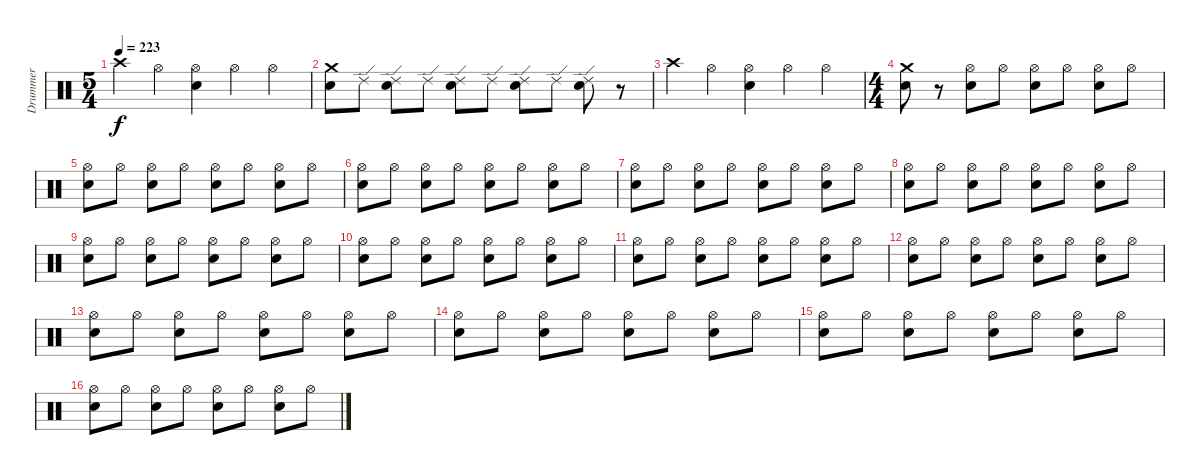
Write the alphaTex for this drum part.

\track ("Drummer" "Drummer") {instrument percussion}
\staff {score}
\articulation defaults
\ts (5 4)
\tempo 223
\clef neutral
\ks c "Crash high (hit)".4{dy f} "Hi-Hat (open)".4
("Hi-Hat (open)" "Electric Snare (hit)").4 "Hi-Hat (open)".4 "Hi-Hat (open)".4 |
("Crash medium (hit)" "Electric Snare (hit)").8 "Ride (edge) 2".8 ("Ride (edge) 2" "Electric Snare (hit)").8 "Ride (edge) 2".8 ("Ride (edge) 2" "Electric Snare (hit)").8 "Ride (edge) 2".8 ("Ride (edge) 2" "Electric Snare (hit)").8 "Ride (edge) 2".8 ("Ride (edge) 2" "Electric Snare (hit)").8 r.8 |
"Crash high (hit)".4 "Hi-Hat (open)".4 ("Hi-Hat (open)" "Electric Snare (hit)").4 "Hi-Hat (open)".4 "Hi-Hat (open)".4 |
\ts (4 4)
("Crash medium (hit)" "Electric Snare (hit)").8 r.8 ("Hi-Hat (open)" "Electric Snare (hit)").8 "Hi-Hat (open)".8 ("Hi-Hat (open)" "Electric Snare (hit)").8 "Hi-Hat (open)".8 ("Hi-Hat (open)" "Electric Snare (hit)").8 "Hi-Hat (open)".8 |
("Hi-Hat (open)" "Electric Snare (hit)").8 "Hi-Hat (open)".8 ("Hi-Hat (open)" "Electric Snare (hit)").8 "Hi-Hat (open)".8 ("Hi-Hat (open)" "Electric Snare (hit)").8 "Hi-Hat (open)".8 ("Hi-Hat (open)" "Electric Snare (hit)").8 "Hi-Hat (open)".8 |
("Hi-Hat (open)" "Electric Snare (hit)").8 "Hi-Hat (open)".8 ("Hi-Hat (open)" "Electric Snare (hit)").8 "Hi-Hat (open)".8 ("Hi-Hat (open)" "Electric Snare (hit)").8 "Hi-Hat (open)".8 ("Hi-Hat (open)" "Electric Snare (hit)").8 "Hi-Hat (open)".8 |
("Hi-Hat (open)" "Electric Snare (hit)").8 "Hi-Hat (open)".8 ("Hi-Hat (open)" "Electric Snare (hit)").8 "Hi-Hat (open)".8 ("Hi-Hat (open)" "Electric Snare (hit)").8 "Hi-Hat (open)".8 ("Hi-Hat (open)" "Electric Snare (hit)").8 "Hi-Hat (open)".8 |
("Hi-Hat (open)" "Electric Snare (hit)").8 "Hi-Hat (open)".8 ("Hi-Hat (open)" "Electric Snare (hit)").8 "Hi-Hat (open)".8 ("Hi-Hat (open)" "Electric Snare (hit)").8 "Hi-Hat (open)".8 ("Hi-Hat (open)" "Electric Snare (hit)").8 "Hi-Hat (open)".8 |
("Hi-Hat (open)" "Electric Snare (hit)").8 "Hi-Hat (open)".8 ("Hi-Hat (open)" "Electric Snare (hit)").8 "Hi-Hat (open)".8 ("Hi-Hat (open)" "Electric Snare (hit)").8 "Hi-Hat (open)".8 ("Hi-Hat (open)" "Electric Snare (hit)").8 "Hi-Hat (open)".8 |
("Hi-Hat (open)" "Electric Snare (hit)").8 "Hi-Hat (open)".8 ("Hi-Hat (open)" "Electric Snare (hit)").8 "Hi-Hat (open)".8 ("Hi-Hat (open)" "Electric Snare (hit)").8 "Hi-Hat (open)".8 ("Hi-Hat (open)" "Electric Snare (hit)").8 "Hi-Hat (open)".8 |
("Hi-Hat (open)" "Electric Snare (hit)").8 "Hi-Hat (open)".8 ("Hi-Hat (open)" "Electric Snare (hit)").8 "Hi-Hat (open)".8 ("Hi-Hat (open)" "Electric Snare (hit)").8 "Hi-Hat (open)".8 ("Hi-Hat (open)" "Electric Snare (hit)").8 "Hi-Hat (open)".8 |
("Hi-Hat (open)" "Electric Snare (hit)").8 "Hi-Hat (open)".8 ("Hi-Hat (open)" "Electric Snare (hit)").8 "Hi-Hat (open)".8 ("Hi-Hat (open)" "Electric Snare (hit)").8 "Hi-Hat (open)".8 ("Hi-Hat (open)" "Electric Snare (hit)").8 "Hi-Hat (open)".8 |
("Hi-Hat (open)" "Electric Snare (hit)").8 "Hi-Hat (open)".8 ("Hi-Hat (open)" "Electric Snare (hit)").8 "Hi-Hat (open)".8 ("Hi-Hat (open)" "Electric Snare (hit)").8 "Hi-Hat (open)".8 ("Hi-Hat (open)" "Electric Snare (hit)").8 "Hi-Hat (open)".8 |
("Hi-Hat (open)" "Electric Snare (hit)").8 "Hi-Hat (open)".8 ("Hi-Hat (open)" "Electric Snare (hit)").8 "Hi-Hat (open)".8 ("Hi-Hat (open)" "Electric Snare (hit)").8 "Hi-Hat (open)".8 ("Hi-Hat (open)" "Electric Snare (hit)").8 "Hi-Hat (open)".8 |
("Hi-Hat (open)" "Electric Snare (hit)").8 "Hi-Hat (open)".8 ("Hi-Hat (open)" "Electric Snare (hit)").8 "Hi-Hat (open)".8 ("Hi-Hat (open)" "Electric Snare (hit)").8 "Hi-Hat (open)".8 ("Hi-Hat (open)" "Electric Snare (hit)").8 "Hi-Hat (open)".8 |
("Hi-Hat (open)" "Electric Snare (hit)").8 "Hi-Hat (open)".8 ("Hi-Hat (open)" "Electric Snare (hit)").8 "Hi-Hat (open)".8 ("Hi-Hat (open)" "Electric Snare (hit)").8 "Hi-Hat (open)".8 ("Hi-Hat (open)" "Electric Snare (hit)").8 "Hi-Hat (open)".8
